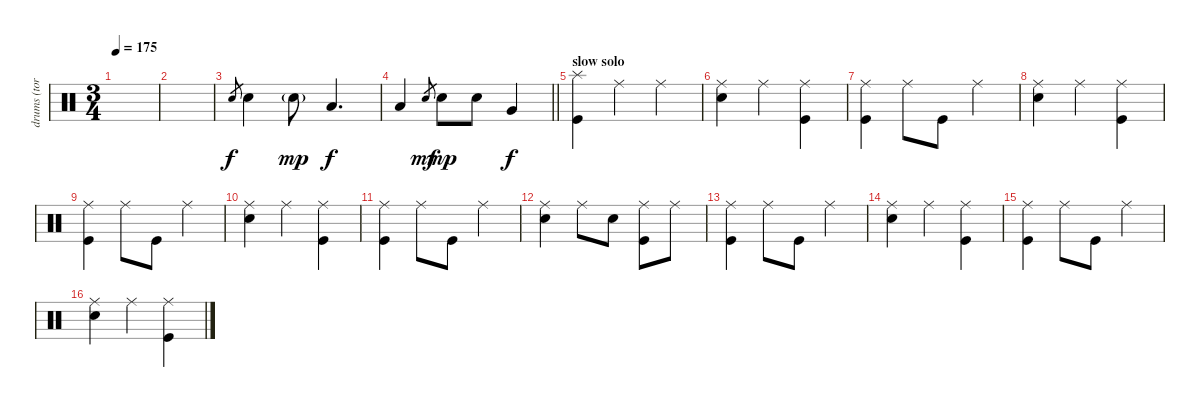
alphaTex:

\track ("drums (tora)" "drums (tor") {instrument percussion}
\staff {score}
\articulation defaults
\ts (3 4)
\tempo 175
\clef neutral
\ks c
|
|
"Snare (hit) 2".8{gr dy f} "Snare (hit) 2".4 "Snare (hit) 2"{g}.8{dy mp} "Low Tom (hit)".4{d dy f} |
\barLineRight lightlight "Low Floor Tom (hit)".4 "Snare (hit) 2"{x}.8{gr dy mf} "Snare (hit) 2".8{dy mp} "Snare (hit) 2".8 "Very Low Tom (hit)".4{dy f}
|
\section ("" "slow solo")
("Splash (hit)" "Kick (hit)").4 "Ride (middle)".4 "Ride (middle)".4 |
("Ride (middle)" "Snare (hit) 2").4 "Ride (middle)".4 ("Ride (middle)" "Kick (hit)").4 |
("Ride (middle)" "Kick (hit)").4 "Ride (middle)".8 "Kick (hit)".8 "Ride (middle)".4 |
("Ride (middle)" "Snare (hit) 2").4 "Ride (middle)".4 ("Ride (middle)" "Kick (hit)").4 |
("Ride (middle)" "Kick (hit)").4 "Ride (middle)".8 "Kick (hit)".8 "Ride (middle)".4 |
("Ride (middle)" "Snare (hit) 2").4 "Ride (middle)".4 ("Ride (middle)" "Kick (hit)").4 |
("Ride (middle)" "Kick (hit)").4 "Ride (middle)".8 "Kick (hit)".8 "Ride (middle)".4 |
("Ride (middle)" "Snare (hit) 2").4 "Ride (middle)".8 "Snare (hit) 2".8 ("Ride (middle)" "Kick (hit)").8 "Ride (middle)".8 |
("Ride (middle)" "Kick (hit)").4 "Ride (middle)".8 "Kick (hit)".8 "Ride (middle)".4 |
("Ride (middle)" "Snare (hit) 2").4 "Ride (middle)".4 ("Ride (middle)" "Kick (hit)").4 |
("Ride (middle)" "Kick (hit)").4 "Ride (middle)".8 "Kick (hit)".8 "Ride (middle)".4 |
("Ride (middle)" "Snare (hit) 2").4 "Ride (middle)".4 ("Ride (middle)" "Kick (hit)").4
